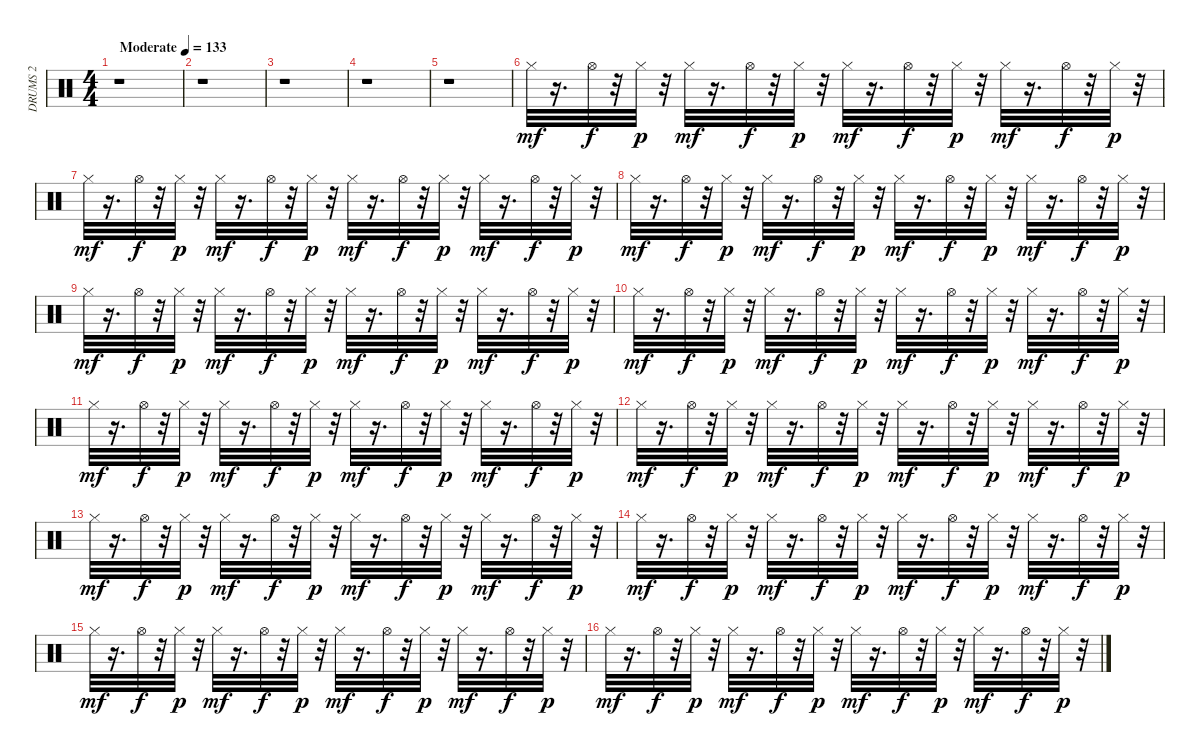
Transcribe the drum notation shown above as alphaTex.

\track ("DRUMS 2                             " "DRUMS 2   ") {instrument percussion}
\staff {score}
\articulation defaults
\ts (4 4)
\tempo (133 "Moderate")
\clef neutral
\ks c
r.1{dy mf} |
r.1 |
r.1 |
r.1 |
r.1 |
"Hi-Hat (closed)".32 r.16{d} "Hi-Hat (open)".32{dy f} r.32 "Hi-Hat (closed)".32{dy p} r.32 "Hi-Hat (closed)".32{dy mf} r.16{d} "Hi-Hat (open)".32{dy f} r.32 "Hi-Hat (closed)".32{dy p} r.32 "Hi-Hat (closed)".32{dy mf} r.16{d} "Hi-Hat (open)".32{dy f} r.32 "Hi-Hat (closed)".32{dy p} r.32 "Hi-Hat (closed)".32{dy mf} r.16{d} "Hi-Hat (open)".32{dy f} r.32 "Hi-Hat (closed)".32{dy p} r.32 |
"Hi-Hat (closed)".32{dy mf} r.16{d} "Hi-Hat (open)".32{dy f} r.32 "Hi-Hat (closed)".32{dy p} r.32 "Hi-Hat (closed)".32{dy mf} r.16{d} "Hi-Hat (open)".32{dy f} r.32 "Hi-Hat (closed)".32{dy p} r.32 "Hi-Hat (closed)".32{dy mf} r.16{d} "Hi-Hat (open)".32{dy f} r.32 "Hi-Hat (closed)".32{dy p} r.32 "Hi-Hat (closed)".32{dy mf} r.16{d} "Hi-Hat (open)".32{dy f} r.32 "Hi-Hat (closed)".32{dy p} r.32 |
"Hi-Hat (closed)".32{dy mf} r.16{d} "Hi-Hat (open)".32{dy f} r.32 "Hi-Hat (closed)".32{dy p} r.32 "Hi-Hat (closed)".32{dy mf} r.16{d} "Hi-Hat (open)".32{dy f} r.32 "Hi-Hat (closed)".32{dy p} r.32 "Hi-Hat (closed)".32{dy mf} r.16{d} "Hi-Hat (open)".32{dy f} r.32 "Hi-Hat (closed)".32{dy p} r.32 "Hi-Hat (closed)".32{dy mf} r.16{d} "Hi-Hat (open)".32{dy f} r.32 "Hi-Hat (closed)".32{dy p} r.32 |
"Hi-Hat (closed)".32{dy mf} r.16{d} "Hi-Hat (open)".32{dy f} r.32 "Hi-Hat (closed)".32{dy p} r.32 "Hi-Hat (closed)".32{dy mf} r.16{d} "Hi-Hat (open)".32{dy f} r.32 "Hi-Hat (closed)".32{dy p} r.32 "Hi-Hat (closed)".32{dy mf} r.16{d} "Hi-Hat (open)".32{dy f} r.32 "Hi-Hat (closed)".32{dy p} r.32 "Hi-Hat (closed)".32{dy mf} r.16{d} "Hi-Hat (open)".32{dy f} r.32 "Hi-Hat (closed)".32{dy p} r.32 |
"Hi-Hat (closed)".32{dy mf} r.16{d} "Hi-Hat (open)".32{dy f} r.32 "Hi-Hat (closed)".32{dy p} r.32 "Hi-Hat (closed)".32{dy mf} r.16{d} "Hi-Hat (open)".32{dy f} r.32 "Hi-Hat (closed)".32{dy p} r.32 "Hi-Hat (closed)".32{dy mf} r.16{d} "Hi-Hat (open)".32{dy f} r.32 "Hi-Hat (closed)".32{dy p} r.32 "Hi-Hat (closed)".32{dy mf} r.16{d} "Hi-Hat (open)".32{dy f} r.32 "Hi-Hat (closed)".32{dy p} r.32 |
"Hi-Hat (closed)".32{dy mf} r.16{d} "Hi-Hat (open)".32{dy f} r.32 "Hi-Hat (closed)".32{dy p} r.32 "Hi-Hat (closed)".32{dy mf} r.16{d} "Hi-Hat (open)".32{dy f} r.32 "Hi-Hat (closed)".32{dy p} r.32 "Hi-Hat (closed)".32{dy mf} r.16{d} "Hi-Hat (open)".32{dy f} r.32 "Hi-Hat (closed)".32{dy p} r.32 "Hi-Hat (closed)".32{dy mf} r.16{d} "Hi-Hat (open)".32{dy f} r.32 "Hi-Hat (closed)".32{dy p} r.32 |
"Hi-Hat (closed)".32{dy mf} r.16{d} "Hi-Hat (open)".32{dy f} r.32 "Hi-Hat (closed)".32{dy p} r.32 "Hi-Hat (closed)".32{dy mf} r.16{d} "Hi-Hat (open)".32{dy f} r.32 "Hi-Hat (closed)".32{dy p} r.32 "Hi-Hat (closed)".32{dy mf} r.16{d} "Hi-Hat (open)".32{dy f} r.32 "Hi-Hat (closed)".32{dy p} r.32 "Hi-Hat (closed)".32{dy mf} r.16{d} "Hi-Hat (open)".32{dy f} r.32 "Hi-Hat (closed)".32{dy p} r.32 |
"Hi-Hat (closed)".32{dy mf} r.16{d} "Hi-Hat (open)".32{dy f} r.32 "Hi-Hat (closed)".32{dy p} r.32 "Hi-Hat (closed)".32{dy mf} r.16{d} "Hi-Hat (open)".32{dy f} r.32 "Hi-Hat (closed)".32{dy p} r.32 "Hi-Hat (closed)".32{dy mf} r.16{d} "Hi-Hat (open)".32{dy f} r.32 "Hi-Hat (closed)".32{dy p} r.32 "Hi-Hat (closed)".32{dy mf} r.16{d} "Hi-Hat (open)".32{dy f} r.32 "Hi-Hat (closed)".32{dy p} r.32 |
"Hi-Hat (closed)".32{dy mf} r.16{d} "Hi-Hat (open)".32{dy f} r.32 "Hi-Hat (closed)".32{dy p} r.32 "Hi-Hat (closed)".32{dy mf} r.16{d} "Hi-Hat (open)".32{dy f} r.32 "Hi-Hat (closed)".32{dy p} r.32 "Hi-Hat (closed)".32{dy mf} r.16{d} "Hi-Hat (open)".32{dy f} r.32 "Hi-Hat (closed)".32{dy p} r.32 "Hi-Hat (closed)".32{dy mf} r.16{d} "Hi-Hat (open)".32{dy f} r.32 "Hi-Hat (closed)".32{dy p} r.32 |
"Hi-Hat (closed)".32{dy mf} r.16{d} "Hi-Hat (open)".32{dy f} r.32 "Hi-Hat (closed)".32{dy p} r.32 "Hi-Hat (closed)".32{dy mf} r.16{d} "Hi-Hat (open)".32{dy f} r.32 "Hi-Hat (closed)".32{dy p} r.32 "Hi-Hat (closed)".32{dy mf} r.16{d} "Hi-Hat (open)".32{dy f} r.32 "Hi-Hat (closed)".32{dy p} r.32 "Hi-Hat (closed)".32{dy mf} r.16{d} "Hi-Hat (open)".32{dy f} r.32 "Hi-Hat (closed)".32{dy p} r.32 |
"Hi-Hat (closed)".32{dy mf} r.16{d} "Hi-Hat (open)".32{dy f} r.32 "Hi-Hat (closed)".32{dy p} r.32 "Hi-Hat (closed)".32{dy mf} r.16{d} "Hi-Hat (open)".32{dy f} r.32 "Hi-Hat (closed)".32{dy p} r.32 "Hi-Hat (closed)".32{dy mf} r.16{d} "Hi-Hat (open)".32{dy f} r.32 "Hi-Hat (closed)".32{dy p} r.32 "Hi-Hat (closed)".32{dy mf} r.16{d} "Hi-Hat (open)".32{dy f} r.32 "Hi-Hat (closed)".32{dy p} r.32
